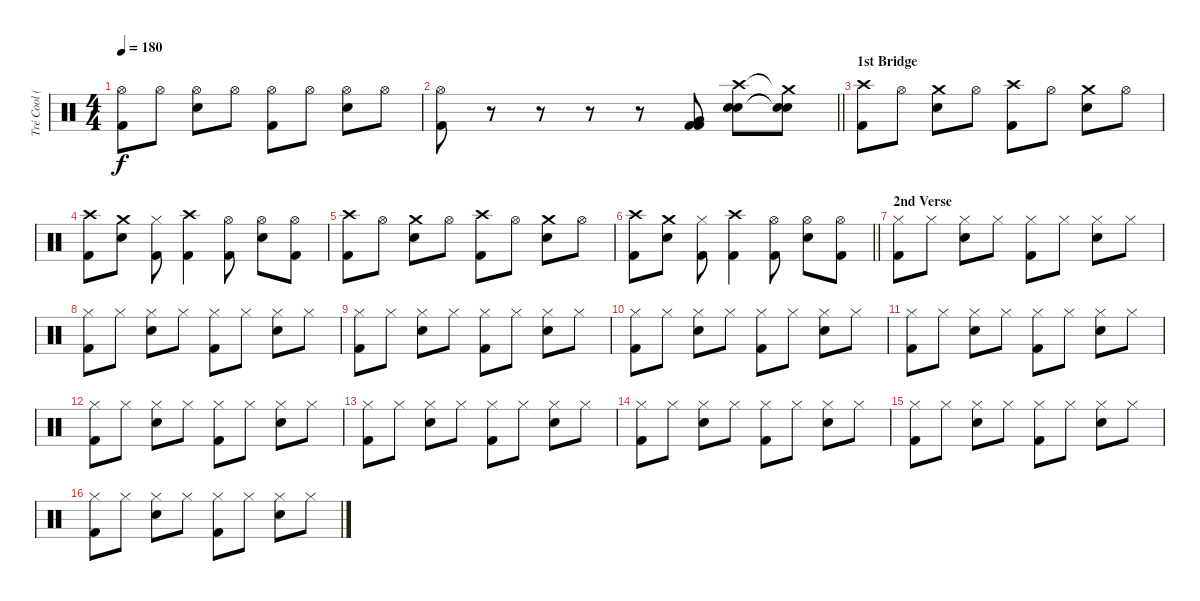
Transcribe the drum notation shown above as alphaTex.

\track ("Tré Cool (Drums)" "Tré Cool (") {instrument percussion}
\staff {score}
\articulation defaults
\ts (4 4)
\tempo 180
\clef neutral
\ks c
("Kick (hit) 2" "Hi-Hat (open)").8{dy f} "Hi-Hat (open)".8 ("Snare (hit) 2" "Hi-Hat (open)").8 "Hi-Hat (open)".8 ("Kick (hit) 2" "Hi-Hat (open)").8 "Hi-Hat (open)".8 ("Snare (hit) 2" "Hi-Hat (open)").8 "Hi-Hat (open)".8 |
\barLineRight lightlight
("Kick (hit) 2" "Hi-Hat (open)").8 r.8 r.8 r.8 r.8 ("Kick (hit) 2" "Kick (hit) 2" "Very Low Tom (hit)").8 ("Snare (hit) 2" "Snare (hit) 2" "Crash high (hit)").8 ("Snare (hit)"{t} "Snare (hit)"{t} "Crash medium (hit)"{t}).8 |
\section ("" "1st Bridge")
("Kick (hit) 2" "Crash high (hit)").8 "Hi-Hat (open)".8 ("Snare (hit) 2" "Crash medium (hit)").8 "Hi-Hat (open)".8 ("Kick (hit) 2" "Crash high (hit)").8 "Hi-Hat (open)".8 ("Snare (hit) 2" "Crash medium (hit)").8 "Hi-Hat (open)".8 |
("Kick (hit) 2" "Crash high (hit)").8 ("Snare (hit) 2" "Crash medium (hit)").8 ("Kick (hit) 2" "Hi-Hat (closed)").8 ("Kick (hit) 2" "Crash high (hit)").4 ("Kick (hit) 2" "Hi-Hat (open)").8 ("Snare (hit) 2" "Hi-Hat (open)").8 ("Kick (hit) 2" "Hi-Hat (open)").8 |
("Kick (hit) 2" "Crash high (hit)").8 "Hi-Hat (open)".8 ("Snare (hit) 2" "Crash medium (hit)").8 "Hi-Hat (open)".8 ("Kick (hit) 2" "Crash high (hit)").8 "Hi-Hat (open)".8 ("Snare (hit) 2" "Crash medium (hit)").8 "Hi-Hat (open)".8 |
\barLineRight lightlight
("Kick (hit) 2" "Crash high (hit)").8 ("Snare (hit) 2" "Crash medium (hit)").8 ("Kick (hit) 2" "Hi-Hat (closed)").8 ("Kick (hit) 2" "Crash high (hit)").4 ("Kick (hit) 2" "Hi-Hat (open)").8 ("Snare (hit) 2" "Hi-Hat (open)").8 ("Kick (hit) 2" "Hi-Hat (open)").8 |
\section ("" "2nd Verse")
("Kick (hit) 2" "Hi-Hat (closed)").8 "Hi-Hat (closed)".8 ("Snare (hit) 2" "Hi-Hat (closed)").8 "Hi-Hat (closed)".8 ("Kick (hit) 2" "Hi-Hat (closed)").8 "Hi-Hat (closed)".8 ("Snare (hit) 2" "Hi-Hat (closed)").8 "Hi-Hat (closed)".8 |
("Kick (hit) 2" "Hi-Hat (closed)").8 "Hi-Hat (closed)".8 ("Snare (hit) 2" "Hi-Hat (closed)").8 "Hi-Hat (closed)".8 ("Kick (hit) 2" "Hi-Hat (closed)").8 "Hi-Hat (closed)".8 ("Snare (hit) 2" "Hi-Hat (closed)").8 "Hi-Hat (closed)".8 |
("Kick (hit) 2" "Hi-Hat (closed)").8 "Hi-Hat (closed)".8 ("Snare (hit) 2" "Hi-Hat (closed)").8 "Hi-Hat (closed)".8 ("Kick (hit) 2" "Hi-Hat (closed)").8 "Hi-Hat (closed)".8 ("Snare (hit) 2" "Hi-Hat (closed)").8 "Hi-Hat (closed)".8 |
("Kick (hit) 2" "Hi-Hat (closed)").8 "Hi-Hat (closed)".8 ("Snare (hit) 2" "Hi-Hat (closed)").8 "Hi-Hat (closed)".8 ("Kick (hit) 2" "Hi-Hat (closed)").8 "Hi-Hat (closed)".8 ("Snare (hit) 2" "Hi-Hat (closed)").8 "Hi-Hat (closed)".8 |
("Kick (hit) 2" "Hi-Hat (closed)").8 "Hi-Hat (closed)".8 ("Snare (hit) 2" "Hi-Hat (closed)").8 "Hi-Hat (closed)".8 ("Kick (hit) 2" "Hi-Hat (closed)").8 "Hi-Hat (closed)".8 ("Snare (hit) 2" "Hi-Hat (closed)").8 "Hi-Hat (closed)".8 |
("Kick (hit) 2" "Hi-Hat (closed)").8 "Hi-Hat (closed)".8 ("Snare (hit) 2" "Hi-Hat (closed)").8 "Hi-Hat (closed)".8 ("Kick (hit) 2" "Hi-Hat (closed)").8 "Hi-Hat (closed)".8 ("Snare (hit) 2" "Hi-Hat (closed)").8 "Hi-Hat (closed)".8 |
("Kick (hit) 2" "Hi-Hat (closed)").8 "Hi-Hat (closed)".8 ("Snare (hit) 2" "Hi-Hat (closed)").8 "Hi-Hat (closed)".8 ("Kick (hit) 2" "Hi-Hat (closed)").8 "Hi-Hat (closed)".8 ("Snare (hit) 2" "Hi-Hat (closed)").8 "Hi-Hat (closed)".8 |
("Kick (hit) 2" "Hi-Hat (closed)").8 "Hi-Hat (closed)".8 ("Snare (hit) 2" "Hi-Hat (closed)").8 "Hi-Hat (closed)".8 ("Kick (hit) 2" "Hi-Hat (closed)").8 "Hi-Hat (closed)".8 ("Snare (hit) 2" "Hi-Hat (closed)").8 "Hi-Hat (closed)".8 |
("Kick (hit) 2" "Hi-Hat (closed)").8 "Hi-Hat (closed)".8 ("Snare (hit) 2" "Hi-Hat (closed)").8 "Hi-Hat (closed)".8 ("Kick (hit) 2" "Hi-Hat (closed)").8 "Hi-Hat (closed)".8 ("Snare (hit) 2" "Hi-Hat (closed)").8 "Hi-Hat (closed)".8 |
("Kick (hit) 2" "Hi-Hat (closed)").8 "Hi-Hat (closed)".8 ("Snare (hit) 2" "Hi-Hat (closed)").8 "Hi-Hat (closed)".8 ("Kick (hit) 2" "Hi-Hat (closed)").8 "Hi-Hat (closed)".8 ("Snare (hit) 2" "Hi-Hat (closed)").8 "Hi-Hat (closed)".8
